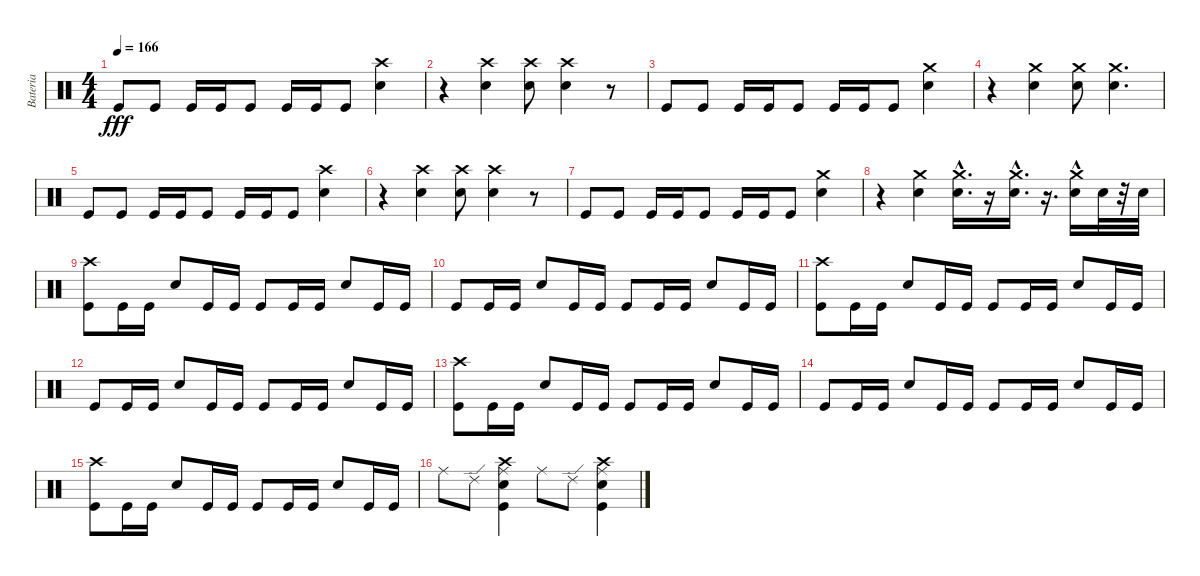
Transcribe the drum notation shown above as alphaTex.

\track ("Bateria" "Bateria") {instrument percussion}
\staff {score}
\articulation defaults
\ts (4 4)
\tempo 166
\clef neutral
\ks c "Kick (hit)".8{dy fff} "Kick (hit)".8 "Kick (hit)".16 "Kick (hit)".16 "Kick (hit)".8 "Kick (hit)".16 "Kick (hit)".16 "Kick (hit)".8
("Crash high (hit)" "Snare (hit) 2").4 |
r.4 ("Crash high (hit)" "Snare (hit) 2").4 ("Snare (hit) 2" "Crash high (hit)").8 ("Snare (hit) 2" "Crash high (hit)").4 r.8 |
"Kick (hit)".8 "Kick (hit)".8 "Kick (hit)".16 "Kick (hit)".16 "Kick (hit)".8 "Kick (hit)".16 "Kick (hit)".16 "Kick (hit)".8 ("Snare (hit) 2" "Crash medium (hit)").4 |
r.4 ("Snare (hit) 2" "Crash medium (hit)").4 ("Snare (hit) 2" "Crash medium (hit)").8 ("Snare (hit) 2" "Crash medium (hit)").4{d} |
"Kick (hit)".8 "Kick (hit)".8 "Kick (hit)".16 "Kick (hit)".16 "Kick (hit)".8 "Kick (hit)".16 "Kick (hit)".16 "Kick (hit)".8 ("Crash high (hit)" "Snare (hit) 2").4 |
r.4 ("Crash high (hit)" "Snare (hit) 2").4 ("Snare (hit) 2" "Crash high (hit)").8 ("Snare (hit) 2" "Crash high (hit)").4 r.8 |
"Kick (hit)".8 "Kick (hit)".8 "Kick (hit)".16 "Kick (hit)".16 "Kick (hit)".8 "Kick (hit)".16 "Kick (hit)".16 "Kick (hit)".8 ("Snare (hit) 2" "Crash medium (hit)").4 |
r.4 ("Snare (hit) 2" "Crash medium (hit)").4 ("Crash medium (hit)"{hac} "Snare (hit) 2"{hac}).16{d} r.16 ("Crash medium (hit)"{hac} "Snare (hit) 2"{hac}).16{d} r.16{d} ("Crash medium (hit)"{hac} "Snare (hit) 2"{hac}).16 "Snare (hit) 2".32 r.32 "Snare (hit) 2".32 |
("Kick (hit)" "Crash high (hit)").8 "Kick (hit)".16 "Kick (hit)".16 "Snare (hit) 2".8 "Kick (hit)".16 "Kick (hit)".16 "Kick (hit)".8 "Kick (hit)".16 "Kick (hit)".16 "Snare (hit) 2".8 "Kick (hit)".16 "Kick (hit)".16 |
"Kick (hit)".8 "Kick (hit)".16 "Kick (hit)".16 "Snare (hit) 2".8 "Kick (hit)".16 "Kick (hit)".16 "Kick (hit)".8 "Kick (hit)".16 "Kick (hit)".16 "Snare (hit) 2".8 "Kick (hit)".16 "Kick (hit)".16 |
("Kick (hit)" "Crash high (hit)").8 "Kick (hit)".16 "Kick (hit)".16 "Snare (hit) 2".8 "Kick (hit)".16 "Kick (hit)".16 "Kick (hit)".8 "Kick (hit)".16 "Kick (hit)".16 "Snare (hit) 2".8 "Kick (hit)".16 "Kick (hit)".16 |
"Kick (hit)".8 "Kick (hit)".16 "Kick (hit)".16 "Snare (hit) 2".8 "Kick (hit)".16 "Kick (hit)".16 "Kick (hit)".8 "Kick (hit)".16 "Kick (hit)".16 "Snare (hit) 2".8 "Kick (hit)".16 "Kick (hit)".16 |
("Kick (hit)" "Crash high (hit)").8 "Kick (hit)".16 "Kick (hit)".16 "Snare (hit) 2".8 "Kick (hit)".16 "Kick (hit)".16 "Kick (hit)".8 "Kick (hit)".16 "Kick (hit)".16 "Snare (hit) 2".8 "Kick (hit)".16 "Kick (hit)".16 |
"Kick (hit)".8 "Kick (hit)".16 "Kick (hit)".16 "Snare (hit) 2".8 "Kick (hit)".16 "Kick (hit)".16 "Kick (hit)".8 "Kick (hit)".16 "Kick (hit)".16 "Snare (hit) 2".8 "Kick (hit)".16 "Kick (hit)".16 |
("Kick (hit)" "Crash high (hit)").8 "Kick (hit)".16 "Kick (hit)".16 "Snare (hit) 2".8 "Kick (hit)".16 "Kick (hit)".16 "Kick (hit)".8 "Kick (hit)".16 "Kick (hit)".16 "Snare (hit) 2".8 "Kick (hit)".16 "Kick (hit)".16 |
"Ride (middle)".8 "Ride (edge) 2".8 ("Snare (hit) 2" "Crash high (hit)" "Kick (hit)" "Ride (middle)").4 "Ride (middle)".8 "Ride (edge) 2".8 ("Snare (hit) 2" "Crash high (hit)" "Kick (hit)" "Ride (middle)").4
